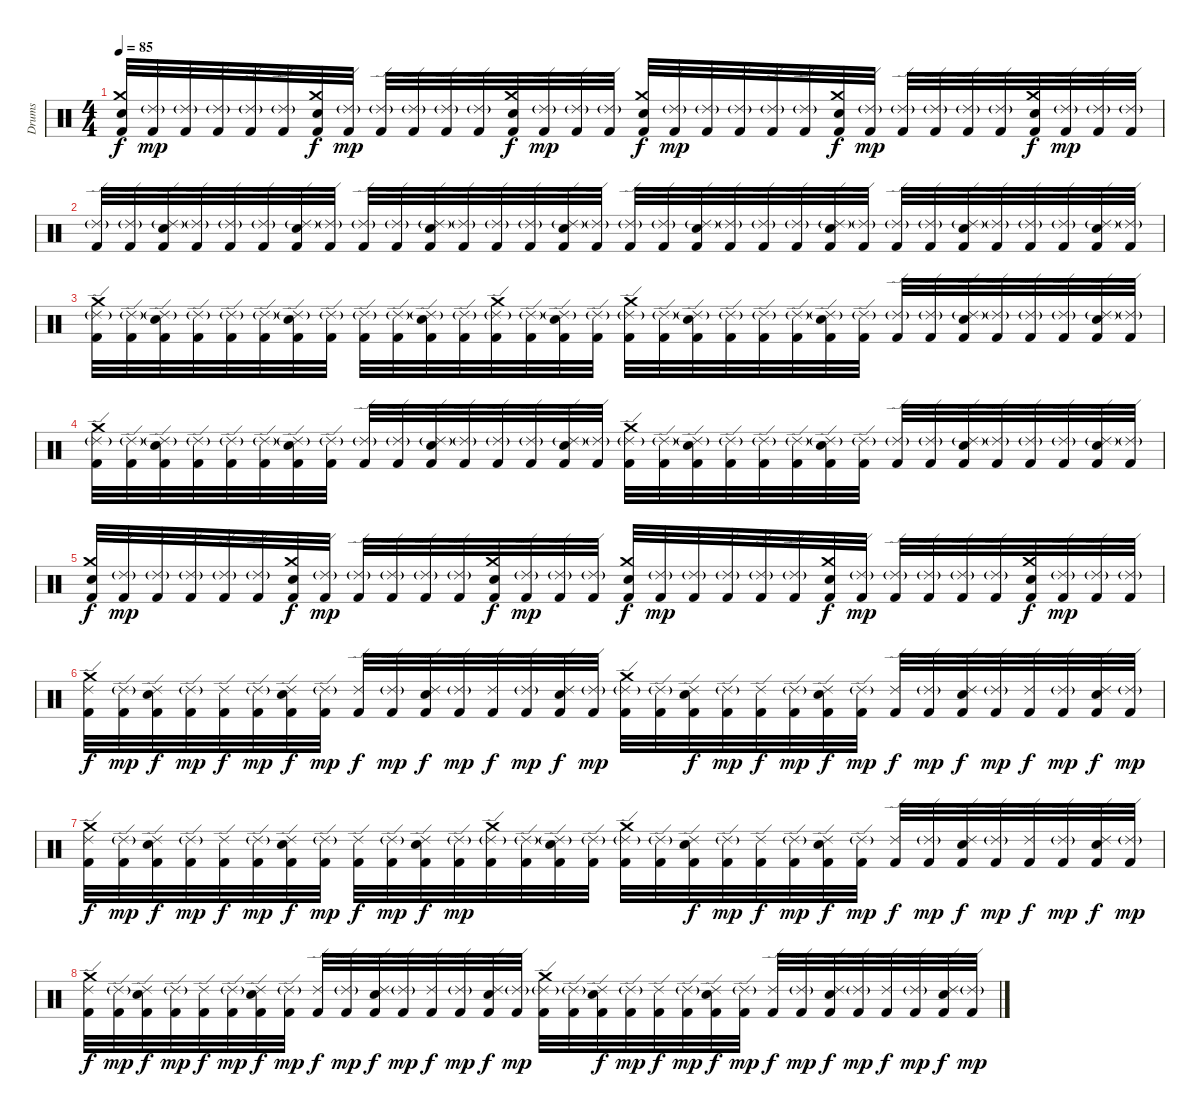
\track ("Drums" "Drums") {instrument percussion}
\staff {score}
\articulation defaults
\ts (4 4)
\tempo 85
\clef neutral
\ks c
("Snare (hit) 2" "Crash medium (hit)" "Kick (hit) 2").32{dy f} ("Ride (edge) 2"{g} "Kick (hit) 2").32{dy mp} ("Ride (edge) 2"{g} "Kick (hit) 2").32 ("Ride (edge) 2"{g} "Kick (hit) 2").32 ("Ride (edge) 2"{g} "Kick (hit) 2").32 ("Ride (edge) 2"{g} "Kick (hit) 2").32 ("Snare (hit) 2" "Crash medium (hit)" "Kick (hit) 2").32{dy f} ("Ride (edge) 2"{g} "Kick (hit) 2").32{dy mp} ("Ride (edge) 2"{g} "Kick (hit) 2").32 ("Ride (edge) 2"{g} "Kick (hit) 2").32 ("Ride (edge) 2"{g} "Kick (hit) 2").32 ("Ride (edge) 2"{g} "Kick (hit) 2").32 ("Snare (hit) 2" "Crash medium (hit)" "Kick (hit) 2").32{dy f} ("Ride (edge) 2"{g} "Kick (hit) 2").32{dy mp} ("Ride (edge) 2"{g} "Kick (hit) 2").32 ("Ride (edge) 2"{g} "Kick (hit) 2").32 ("Snare (hit) 2" "Crash medium (hit)" "Kick (hit) 2").32{dy f} ("Ride (edge) 2"{g} "Kick (hit) 2").32{dy mp} ("Ride (edge) 2"{g} "Kick (hit) 2").32 ("Ride (edge) 2"{g} "Kick (hit) 2").32 ("Ride (edge) 2"{g} "Kick (hit) 2").32 ("Ride (edge) 2"{g} "Kick (hit) 2").32 ("Snare (hit) 2" "Crash medium (hit)" "Kick (hit) 2").32{dy f} ("Ride (edge) 2"{g} "Kick (hit) 2").32{dy mp} ("Ride (edge) 2"{g} "Kick (hit) 2").32 ("Ride (edge) 2"{g} "Kick (hit) 2").32 ("Ride (edge) 2"{g} "Kick (hit) 2").32 ("Ride (edge) 2"{g} "Kick (hit) 2").32 ("Snare (hit) 2" "Crash medium (hit)" "Kick (hit) 2").32{dy f} ("Ride (edge) 2"{g} "Kick (hit) 2").32{dy mp} ("Ride (edge) 2"{g} "Kick (hit) 2").32 ("Ride (edge) 2"{g} "Kick (hit) 2").32 |
("Ride (edge) 2"{g} "Kick (hit) 2").32 ("Ride (edge) 2"{g} "Kick (hit) 2").32 ("Snare (hit) 2" "Ride (edge) 2"{g} "Kick (hit) 2").32 ("Ride (edge) 2"{g} "Kick (hit) 2").32 ("Ride (edge) 2"{g} "Kick (hit) 2").32 ("Ride (edge) 2"{g} "Kick (hit) 2").32 ("Snare (hit) 2" "Ride (edge) 2"{g} "Kick (hit) 2").32 ("Ride (edge) 2"{g} "Kick (hit) 2").32 ("Ride (edge) 2"{g} "Kick (hit) 2").32 ("Ride (edge) 2"{g} "Kick (hit) 2").32 ("Snare (hit) 2" "Ride (edge) 2"{g} "Kick (hit) 2").32 ("Ride (edge) 2"{g} "Kick (hit) 2").32 ("Ride (edge) 2"{g} "Kick (hit) 2").32 ("Ride (edge) 2"{g} "Kick (hit) 2").32 ("Snare (hit) 2" "Ride (edge) 2"{g} "Kick (hit) 2").32 ("Ride (edge) 2"{g} "Kick (hit) 2").32 ("Ride (edge) 2"{g} "Kick (hit) 2").32 ("Ride (edge) 2"{g} "Kick (hit) 2").32 ("Snare (hit) 2" "Ride (edge) 2"{g} "Kick (hit) 2").32 ("Ride (edge) 2"{g} "Kick (hit) 2").32 ("Ride (edge) 2"{g} "Kick (hit) 2").32 ("Ride (edge) 2"{g} "Kick (hit) 2").32 ("Snare (hit) 2" "Ride (edge) 2"{g} "Kick (hit) 2").32 ("Ride (edge) 2"{g} "Kick (hit) 2").32 ("Ride (edge) 2"{g} "Kick (hit) 2").32 ("Ride (edge) 2"{g} "Kick (hit) 2").32 ("Snare (hit) 2" "Ride (edge) 2"{g} "Kick (hit) 2").32 ("Ride (edge) 2"{g} "Kick (hit) 2").32 ("Ride (edge) 2"{g} "Kick (hit) 2").32 ("Ride (edge) 2"{g} "Kick (hit) 2").32 ("Snare (hit) 2" "Ride (edge) 2"{g} "Kick (hit) 2").32 ("Ride (edge) 2"{g} "Kick (hit) 2").32 |
("Crash medium (hit)" "Ride (edge) 2"{g} "Kick (hit) 2").32 ("Ride (edge) 2"{g} "Kick (hit) 2").32 ("Snare (hit) 2" "Ride (edge) 2"{g} "Kick (hit) 2").32 ("Ride (edge) 2"{g} "Kick (hit) 2").32 ("Ride (edge) 2"{g} "Kick (hit) 2").32 ("Ride (edge) 2"{g} "Kick (hit) 2").32 ("Snare (hit) 2" "Ride (edge) 2"{g} "Kick (hit) 2").32 ("Ride (edge) 2"{g} "Kick (hit) 2").32 ("Ride (edge) 2"{g} "Kick (hit) 2").32 ("Ride (edge) 2"{g} "Kick (hit) 2").32 ("Snare (hit) 2" "Ride (edge) 2"{g} "Kick (hit) 2").32 ("Ride (edge) 2"{g} "Kick (hit) 2").32 ("Crash medium (hit)" "Ride (edge) 2"{g} "Kick (hit) 2").32 ("Ride (edge) 2"{g} "Kick (hit) 2").32 ("Snare (hit) 2" "Ride (edge) 2"{g} "Kick (hit) 2").32 ("Ride (edge) 2"{g} "Kick (hit) 2").32 ("Crash medium (hit)" "Ride (edge) 2"{g} "Kick (hit) 2").32 ("Ride (edge) 2"{g} "Kick (hit) 2").32 ("Snare (hit) 2" "Ride (edge) 2"{g} "Kick (hit) 2").32 ("Ride (edge) 2"{g} "Kick (hit) 2").32 ("Ride (edge) 2"{g} "Kick (hit) 2").32 ("Ride (edge) 2"{g} "Kick (hit) 2").32 ("Snare (hit) 2" "Ride (edge) 2"{g} "Kick (hit) 2").32 ("Ride (edge) 2"{g} "Kick (hit) 2").32 ("Ride (edge) 2"{g} "Kick (hit) 2").32 ("Ride (edge) 2"{g} "Kick (hit) 2").32 ("Snare (hit) 2" "Ride (edge) 2"{g} "Kick (hit) 2").32 ("Ride (edge) 2"{g} "Kick (hit) 2").32 ("Ride (edge) 2"{g} "Kick (hit) 2").32 ("Ride (edge) 2"{g} "Kick (hit) 2").32 ("Snare (hit) 2" "Ride (edge) 2"{g} "Kick (hit) 2").32 ("Ride (edge) 2"{g} "Kick (hit) 2").32 |
("Crash medium (hit)" "Ride (edge) 2"{g} "Kick (hit) 2").32 ("Ride (edge) 2"{g} "Kick (hit) 2").32 ("Snare (hit) 2" "Ride (edge) 2"{g} "Kick (hit) 2").32 ("Ride (edge) 2"{g} "Kick (hit) 2").32 ("Ride (edge) 2"{g} "Kick (hit) 2").32 ("Ride (edge) 2"{g} "Kick (hit) 2").32 ("Snare (hit) 2" "Ride (edge) 2"{g} "Kick (hit) 2").32 ("Ride (edge) 2"{g} "Kick (hit) 2").32 ("Ride (edge) 2"{g} "Kick (hit) 2").32 ("Ride (edge) 2"{g} "Kick (hit) 2").32 ("Snare (hit) 2" "Ride (edge) 2"{g} "Kick (hit) 2").32 ("Ride (edge) 2"{g} "Kick (hit) 2").32 ("Ride (edge) 2"{g} "Kick (hit) 2").32 ("Ride (edge) 2"{g} "Kick (hit) 2").32 ("Snare (hit) 2" "Ride (edge) 2"{g} "Kick (hit) 2").32 ("Ride (edge) 2"{g} "Kick (hit) 2").32 ("Crash medium (hit)" "Ride (edge) 2"{g} "Kick (hit) 2").32 ("Ride (edge) 2"{g} "Kick (hit) 2").32 ("Snare (hit) 2" "Ride (edge) 2"{g} "Kick (hit) 2").32 ("Ride (edge) 2"{g} "Kick (hit) 2").32 ("Ride (edge) 2"{g} "Kick (hit) 2").32 ("Ride (edge) 2"{g} "Kick (hit) 2").32 ("Snare (hit) 2" "Ride (edge) 2"{g} "Kick (hit) 2").32 ("Ride (edge) 2"{g} "Kick (hit) 2").32 ("Ride (edge) 2"{g} "Kick (hit) 2").32 ("Ride (edge) 2"{g} "Kick (hit) 2").32 ("Snare (hit) 2" "Ride (edge) 2"{g} "Kick (hit) 2").32 ("Ride (edge) 2"{g} "Kick (hit) 2").32 ("Ride (edge) 2"{g} "Kick (hit) 2").32 ("Ride (edge) 2"{g} "Kick (hit) 2").32 ("Snare (hit) 2" "Ride (edge) 2"{g} "Kick (hit) 2").32 ("Ride (edge) 2"{g} "Kick (hit) 2").32 |
("Snare (hit) 2" "Crash medium (hit)" "Kick (hit) 2").32{dy f} ("Ride (edge) 2"{g} "Kick (hit) 2").32{dy mp} ("Ride (edge) 2"{g} "Kick (hit) 2").32 ("Ride (edge) 2"{g} "Kick (hit) 2").32 ("Ride (edge) 2"{g} "Kick (hit) 2").32 ("Ride (edge) 2"{g} "Kick (hit) 2").32 ("Snare (hit) 2" "Crash medium (hit)" "Kick (hit) 2").32{dy f} ("Ride (edge) 2"{g} "Kick (hit) 2").32{dy mp} ("Ride (edge) 2"{g} "Kick (hit) 2").32 ("Ride (edge) 2"{g} "Kick (hit) 2").32 ("Ride (edge) 2"{g} "Kick (hit) 2").32 ("Ride (edge) 2"{g} "Kick (hit) 2").32 ("Snare (hit) 2" "Crash medium (hit)" "Kick (hit) 2").32{dy f} ("Ride (edge) 2"{g} "Kick (hit) 2").32{dy mp} ("Ride (edge) 2"{g} "Kick (hit) 2").32 ("Ride (edge) 2"{g} "Kick (hit) 2").32 ("Snare (hit) 2" "Crash medium (hit)" "Kick (hit) 2").32{dy f} ("Ride (edge) 2"{g} "Kick (hit) 2").32{dy mp} ("Ride (edge) 2"{g} "Kick (hit) 2").32 ("Ride (edge) 2"{g} "Kick (hit) 2").32 ("Ride (edge) 2"{g} "Kick (hit) 2").32 ("Ride (edge) 2"{g} "Kick (hit) 2").32 ("Snare (hit) 2" "Crash medium (hit)" "Kick (hit) 2").32{dy f} ("Ride (edge) 2"{g} "Kick (hit) 2").32{dy mp} ("Ride (edge) 2"{g} "Kick (hit) 2").32 ("Ride (edge) 2"{g} "Kick (hit) 2").32 ("Ride (edge) 2"{g} "Kick (hit) 2").32 ("Ride (edge) 2"{g} "Kick (hit) 2").32 ("Snare (hit) 2" "Crash medium (hit)" "Kick (hit) 2").32{dy f} ("Ride (edge) 2"{g} "Kick (hit) 2").32{dy mp} ("Ride (edge) 2"{g} "Kick (hit) 2").32 ("Ride (edge) 2"{g} "Kick (hit) 2").32 |
("Crash medium (hit)" "Ride (edge) 2" "Kick (hit) 2").32{dy f} ("Ride (edge) 2"{g} "Kick (hit) 2").32{dy mp} ("Snare (hit) 2" "Ride (edge) 2" "Kick (hit) 2").32{dy f} ("Ride (edge) 2"{g} "Kick (hit) 2").32{dy mp} ("Ride (edge) 2" "Kick (hit) 2").32{dy f} ("Ride (edge) 2"{g} "Kick (hit) 2").32{dy mp} ("Snare (hit) 2" "Ride (edge) 2" "Kick (hit) 2").32{dy f} ("Ride (edge) 2"{g} "Kick (hit) 2").32{dy mp} ("Ride (edge) 2" "Kick (hit) 2").32{dy f} ("Ride (edge) 2"{g} "Kick (hit) 2").32{dy mp} ("Snare (hit) 2" "Ride (edge) 2" "Kick (hit) 2").32{dy f} ("Ride (edge) 2"{g} "Kick (hit) 2").32{dy mp} ("Ride (edge) 2" "Kick (hit) 2").32{dy f} ("Ride (edge) 2"{g} "Kick (hit) 2").32{dy mp} ("Snare (hit) 2" "Ride (edge) 2" "Kick (hit) 2").32{dy f} ("Ride (edge) 2"{g} "Kick (hit) 2").32{dy mp} ("Crash medium (hit)" "Ride (edge) 2"{g} "Kick (hit) 2").32 ("Ride (edge) 2"{g} "Kick (hit) 2").32 ("Snare (hit) 2" "Ride (edge) 2" "Kick (hit) 2").32{dy f} ("Ride (edge) 2"{g} "Kick (hit) 2").32{dy mp} ("Ride (edge) 2" "Kick (hit) 2").32{dy f} ("Ride (edge) 2"{g} "Kick (hit) 2").32{dy mp} ("Snare (hit) 2" "Ride (edge) 2" "Kick (hit) 2").32{dy f} ("Ride (edge) 2"{g} "Kick (hit) 2").32{dy mp} ("Ride (edge) 2" "Kick (hit) 2").32{dy f} ("Ride (edge) 2"{g} "Kick (hit) 2").32{dy mp} ("Snare (hit) 2" "Ride (edge) 2" "Kick (hit) 2").32{dy f} ("Ride (edge) 2"{g} "Kick (hit) 2").32{dy mp} ("Ride (edge) 2" "Kick (hit) 2").32{dy f} ("Ride (edge) 2"{g} "Kick (hit) 2").32{dy mp} ("Snare (hit) 2" "Ride (edge) 2" "Kick (hit) 2").32{dy f} ("Ride (edge) 2"{g} "Kick (hit) 2").32{dy mp} |
("Crash medium (hit)" "Ride (edge) 2" "Kick (hit) 2").32{dy f} ("Ride (edge) 2"{g} "Kick (hit) 2").32{dy mp} ("Snare (hit) 2" "Ride (edge) 2" "Kick (hit) 2").32{dy f} ("Ride (edge) 2"{g} "Kick (hit) 2").32{dy mp} ("Ride (edge) 2" "Kick (hit) 2").32{dy f} ("Ride (edge) 2"{g} "Kick (hit) 2").32{dy mp} ("Snare (hit) 2" "Ride (edge) 2" "Kick (hit) 2").32{dy f} ("Ride (edge) 2"{g} "Kick (hit) 2").32{dy mp} ("Ride (edge) 2" "Kick (hit) 2").32{dy f} ("Ride (edge) 2"{g} "Kick (hit) 2").32{dy mp} ("Snare (hit) 2" "Ride (edge) 2" "Kick (hit) 2").32{dy f} ("Ride (edge) 2"{g} "Kick (hit) 2").32{dy mp} ("Crash medium (hit)" "Ride (edge) 2"{g} "Kick (hit) 2").32 ("Ride (edge) 2"{g} "Kick (hit) 2").32 ("Snare (hit) 2" "Ride (edge) 2"{g} "Kick (hit) 2").32 ("Ride (edge) 2"{g} "Kick (hit) 2").32 ("Crash medium (hit)" "Ride (edge) 2"{g} "Kick (hit) 2").32 ("Ride (edge) 2"{g} "Kick (hit) 2").32 ("Snare (hit) 2" "Ride (edge) 2" "Kick (hit) 2").32{dy f} ("Ride (edge) 2"{g} "Kick (hit) 2").32{dy mp} ("Ride (edge) 2" "Kick (hit) 2").32{dy f} ("Ride (edge) 2"{g} "Kick (hit) 2").32{dy mp} ("Snare (hit) 2" "Ride (edge) 2" "Kick (hit) 2").32{dy f} ("Ride (edge) 2"{g} "Kick (hit) 2").32{dy mp} ("Ride (edge) 2" "Kick (hit) 2").32{dy f} ("Ride (edge) 2"{g} "Kick (hit) 2").32{dy mp} ("Snare (hit) 2" "Ride (edge) 2" "Kick (hit) 2").32{dy f} ("Ride (edge) 2"{g} "Kick (hit) 2").32{dy mp} ("Ride (edge) 2" "Kick (hit) 2").32{dy f} ("Ride (edge) 2"{g} "Kick (hit) 2").32{dy mp} ("Snare (hit) 2" "Ride (edge) 2" "Kick (hit) 2").32{dy f} ("Ride (edge) 2"{g} "Kick (hit) 2").32{dy mp} |
("Crash medium (hit)" "Ride (edge) 2" "Kick (hit) 2").32{dy f} ("Ride (edge) 2"{g} "Kick (hit) 2").32{dy mp} ("Snare (hit) 2" "Ride (edge) 2" "Kick (hit) 2").32{dy f} ("Ride (edge) 2"{g} "Kick (hit) 2").32{dy mp} ("Ride (edge) 2" "Kick (hit) 2").32{dy f} ("Ride (edge) 2"{g} "Kick (hit) 2").32{dy mp} ("Snare (hit) 2" "Ride (edge) 2" "Kick (hit) 2").32{dy f} ("Ride (edge) 2"{g} "Kick (hit) 2").32{dy mp} ("Ride (edge) 2" "Kick (hit) 2").32{dy f} ("Ride (edge) 2"{g} "Kick (hit) 2").32{dy mp} ("Snare (hit) 2" "Ride (edge) 2" "Kick (hit) 2").32{dy f} ("Ride (edge) 2"{g} "Kick (hit) 2").32{dy mp} ("Ride (edge) 2" "Kick (hit) 2").32{dy f} ("Ride (edge) 2"{g} "Kick (hit) 2").32{dy mp} ("Snare (hit) 2" "Ride (edge) 2" "Kick (hit) 2").32{dy f} ("Ride (edge) 2"{g} "Kick (hit) 2").32{dy mp} ("Crash medium (hit)" "Ride (edge) 2"{g} "Kick (hit) 2").32 ("Ride (edge) 2"{g} "Kick (hit) 2").32 ("Snare (hit) 2" "Ride (edge) 2" "Kick (hit) 2").32{dy f} ("Ride (edge) 2"{g} "Kick (hit) 2").32{dy mp} ("Ride (edge) 2" "Kick (hit) 2").32{dy f} ("Ride (edge) 2"{g} "Kick (hit) 2").32{dy mp} ("Snare (hit) 2" "Ride (edge) 2" "Kick (hit) 2").32{dy f} ("Ride (edge) 2"{g} "Kick (hit) 2").32{dy mp} ("Ride (edge) 2" "Kick (hit) 2").32{dy f} ("Ride (edge) 2"{g} "Kick (hit) 2").32{dy mp} ("Snare (hit) 2" "Ride (edge) 2" "Kick (hit) 2").32{dy f} ("Ride (edge) 2"{g} "Kick (hit) 2").32{dy mp} ("Ride (edge) 2" "Kick (hit) 2").32{dy f} ("Ride (edge) 2"{g} "Kick (hit) 2").32{dy mp} ("Snare (hit) 2" "Ride (edge) 2" "Kick (hit) 2").32{dy f} ("Ride (edge) 2"{g} "Kick (hit) 2").32{dy mp}
